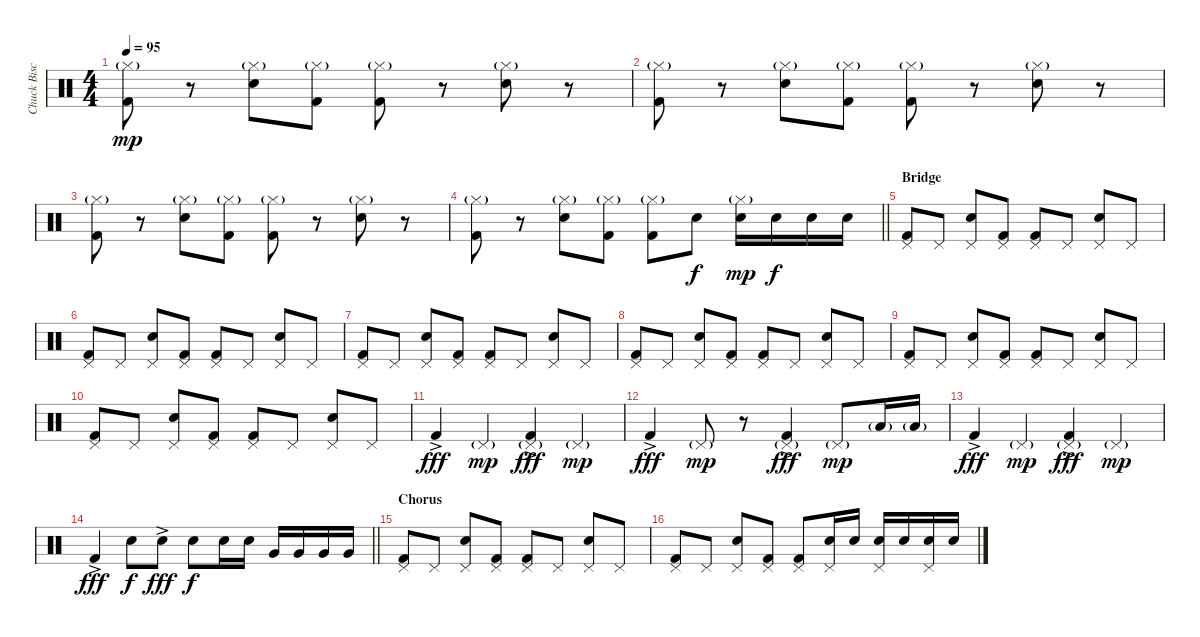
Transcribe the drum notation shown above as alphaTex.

\track ("Chuck Biscuits" "Chuck Bisc") {instrument percussion}
\staff {score}
\articulation defaults
\ts (4 4)
\tempo 95
\clef neutral
\ks c
("Hi-Hat (closed)"{g} "Kick (hit) 2").8{dy mp} r.8 ("Hi-Hat (closed)"{g} "Electric Snare (hit)").8 ("Hi-Hat (closed)"{g} "Kick (hit) 2").8 ("Hi-Hat (closed)"{g} "Kick (hit) 2").8 r.8 ("Hi-Hat (closed)"{g} "Electric Snare (hit)").8 r.8 |
("Hi-Hat (closed)"{g} "Kick (hit) 2").8 r.8 ("Hi-Hat (closed)"{g} "Electric Snare (hit)").8 ("Hi-Hat (closed)"{g} "Kick (hit) 2").8 ("Hi-Hat (closed)"{g} "Kick (hit) 2").8 r.8 ("Hi-Hat (closed)"{g} "Electric Snare (hit)").8 r.8 |
("Hi-Hat (closed)"{g} "Kick (hit) 2").8 r.8 ("Hi-Hat (closed)"{g} "Electric Snare (hit)").8 ("Hi-Hat (closed)"{g} "Kick (hit) 2").8 ("Hi-Hat (closed)"{g} "Kick (hit) 2").8 r.8 ("Hi-Hat (closed)"{g} "Electric Snare (hit)").8 r.8 |
\barLineRight lightlight
("Hi-Hat (closed)"{g} "Kick (hit) 2").8 r.8 ("Hi-Hat (closed)"{g} "Electric Snare (hit)").8 ("Hi-Hat (closed)"{g} "Kick (hit) 2").8 ("Hi-Hat (closed)"{g} "Kick (hit) 2").8 "Electric Snare (hit)".8{dy f} ("Hi-Hat (closed)"{g} "Snare (hit) 2").16{dy mp} "Snare (hit) 2".16{dy f} "Snare (hit) 2".16 "Snare (hit) 2".16 |
\section ("" "Bridge")
("Pedal Hi-Hat (hit)" "Kick (hit) 2").8 "Pedal Hi-Hat (hit)".8 ("Pedal Hi-Hat (hit)" "Electric Snare (hit)").8 ("Pedal Hi-Hat (hit)" "Kick (hit) 2").8 ("Pedal Hi-Hat (hit)" "Kick (hit) 2").8 "Pedal Hi-Hat (hit)".8 ("Pedal Hi-Hat (hit)" "Electric Snare (hit)").8 "Pedal Hi-Hat (hit)".8 |
("Pedal Hi-Hat (hit)" "Kick (hit) 2").8 "Pedal Hi-Hat (hit)".8 ("Pedal Hi-Hat (hit)" "Electric Snare (hit)").8 ("Pedal Hi-Hat (hit)" "Kick (hit) 2").8 ("Pedal Hi-Hat (hit)" "Kick (hit) 2").8 "Pedal Hi-Hat (hit)".8 ("Pedal Hi-Hat (hit)" "Electric Snare (hit)").8 "Pedal Hi-Hat (hit)".8 |
("Pedal Hi-Hat (hit)" "Kick (hit) 2").8 "Pedal Hi-Hat (hit)".8 ("Pedal Hi-Hat (hit)" "Electric Snare (hit)").8 ("Pedal Hi-Hat (hit)" "Kick (hit) 2").8 ("Pedal Hi-Hat (hit)" "Kick (hit) 2").8 "Pedal Hi-Hat (hit)".8 ("Pedal Hi-Hat (hit)" "Electric Snare (hit)").8 "Pedal Hi-Hat (hit)".8 |
("Pedal Hi-Hat (hit)" "Kick (hit) 2").8 "Pedal Hi-Hat (hit)".8 ("Pedal Hi-Hat (hit)" "Electric Snare (hit)").8 ("Pedal Hi-Hat (hit)" "Kick (hit) 2").8 ("Pedal Hi-Hat (hit)" "Kick (hit) 2").8 "Pedal Hi-Hat (hit)".8 ("Pedal Hi-Hat (hit)" "Electric Snare (hit)").8 "Pedal Hi-Hat (hit)".8 |
("Pedal Hi-Hat (hit)" "Kick (hit) 2").8 "Pedal Hi-Hat (hit)".8 ("Pedal Hi-Hat (hit)" "Electric Snare (hit)").8 ("Pedal Hi-Hat (hit)" "Kick (hit) 2").8 ("Pedal Hi-Hat (hit)" "Kick (hit) 2").8 "Pedal Hi-Hat (hit)".8 ("Pedal Hi-Hat (hit)" "Electric Snare (hit)").8 "Pedal Hi-Hat (hit)".8 |
("Pedal Hi-Hat (hit)" "Kick (hit) 2").8 "Pedal Hi-Hat (hit)".8 ("Pedal Hi-Hat (hit)" "Electric Snare (hit)").8 ("Pedal Hi-Hat (hit)" "Kick (hit) 2").8 ("Pedal Hi-Hat (hit)" "Kick (hit) 2").8 "Pedal Hi-Hat (hit)".8 ("Pedal Hi-Hat (hit)" "Electric Snare (hit)").8 "Pedal Hi-Hat (hit)".8 |
"Kick (hit) 2"{ac}.4{dy fff} "Pedal Hi-Hat (hit)"{g}.4{dy mp} ("Pedal Hi-Hat (hit)"{g} "Kick (hit) 2"{ac}).4{dy fff} "Pedal Hi-Hat (hit)"{g}.4{dy mp} |
"Kick (hit) 2"{ac}.4{dy fff} "Pedal Hi-Hat (hit)"{g}.8{dy mp} r.8 ("Pedal Hi-Hat (hit)"{g} "Kick (hit) 2"{ac}).4{dy fff} "Pedal Hi-Hat (hit)"{g}.8{dy mp} "Low Floor Tom (hit)"{g}.16 "Low Floor Tom (hit)"{g}.16 |
"Kick (hit) 2"{ac}.4{dy fff} "Pedal Hi-Hat (hit)"{g}.4{dy mp} ("Pedal Hi-Hat (hit)"{g} "Kick (hit) 2"{ac}).4{dy fff} "Pedal Hi-Hat (hit)"{g}.4{dy mp} |
\barLineRight lightlight "Kick (hit) 2"{ac}.4{dy fff} "Snare (hit) 2".8{dy f} "Snare (hit) 2"{ac}.8{dy fff} "Electric Snare (hit)".8{dy f} "Snare (hit) 2".16 "Snare (hit) 2".16 "Very Low Tom (hit)".16 "Very Low Tom (hit)".16 "Very Low Tom (hit)".16 "Very Low Tom (hit)".16
|
\section ("" "Chorus")
("Pedal Hi-Hat (hit)" "Kick (hit) 2").8 "Pedal Hi-Hat (hit)".8 ("Pedal Hi-Hat (hit)" "Electric Snare (hit)").8 ("Pedal Hi-Hat (hit)" "Kick (hit) 2").8 ("Pedal Hi-Hat (hit)" "Kick (hit) 2").8 "Pedal Hi-Hat (hit)".8 ("Pedal Hi-Hat (hit)" "Electric Snare (hit)").8 "Pedal Hi-Hat (hit)".8 |
("Pedal Hi-Hat (hit)" "Kick (hit) 2").8 "Pedal Hi-Hat (hit)".8 ("Pedal Hi-Hat (hit)" "Electric Snare (hit)").8 ("Pedal Hi-Hat (hit)" "Kick (hit) 2").8 ("Pedal Hi-Hat (hit)" "Kick (hit) 2").8 ("Pedal Hi-Hat (hit)" "Electric Snare (hit)").16 "Electric Snare (hit)".16 ("Pedal Hi-Hat (hit)" "Electric Snare (hit)").16 "Electric Snare (hit)".16 ("Pedal Hi-Hat (hit)" "Electric Snare (hit)").16 "Electric Snare (hit)".16
